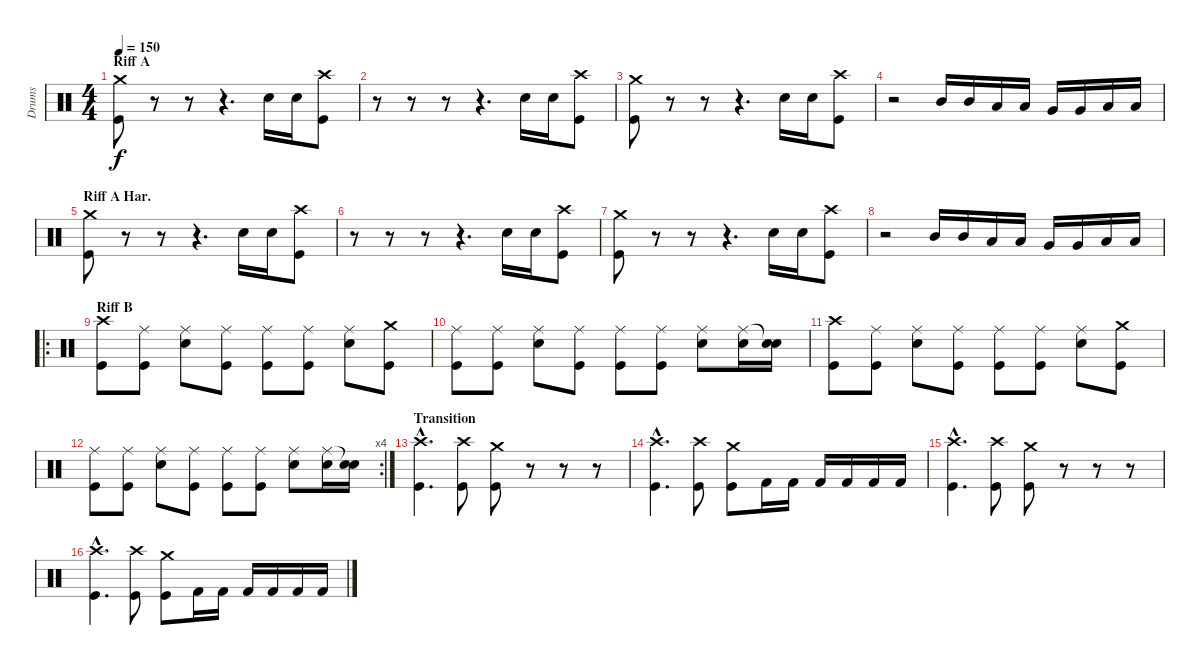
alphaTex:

\track ("Drums" "Drums") {instrument percussion}
\staff {score}
\articulation defaults
\ts (4 4)
\section ("" "Riff A")
\tempo 150
\clef neutral
\ks c
("Crash medium (hit)" "Kick (hit)").8{dy f} r.8 r.8 r.4{d} "Electric Snare (hit)".16 "Electric Snare (hit)".16 ("Crash high (hit)" "Kick (hit)").8 |
r.8 r.8 r.8 r.4{d} "Electric Snare (hit)".16 "Electric Snare (hit)".16 ("Crash high (hit)" "Kick (hit)").8 |
("Crash medium (hit)" "Kick (hit)").8 r.8 r.8 r.4{d} "Electric Snare (hit)".16 "Electric Snare (hit)".16 ("Crash high (hit)" "Kick (hit)").8 |
r.2 "Mid Tom (hit)".16 "Mid Tom (hit)".16 "Low Tom (hit)".16 "Low Tom (hit)".16 "Very Low Tom (hit)".16 "Very Low Tom (hit)".16 "Low Tom (hit)".16 "Low Tom (hit)".16 |
\section ("" "Riff A Har.")
("Crash medium (hit)" "Kick (hit)").8 r.8 r.8 r.4{d} "Electric Snare (hit)".16 "Electric Snare (hit)".16 ("Crash high (hit)" "Kick (hit)").8 |
r.8 r.8 r.8 r.4{d} "Electric Snare (hit)".16 "Electric Snare (hit)".16 ("Crash high (hit)" "Kick (hit)").8 |
("Crash medium (hit)" "Kick (hit)").8 r.8 r.8 r.4{d} "Electric Snare (hit)".16 "Electric Snare (hit)".16 ("Crash high (hit)" "Kick (hit)").8 |
r.2 "Mid Tom (hit)".16 "Mid Tom (hit)".16 "Low Tom (hit)".16 "Low Tom (hit)".16 "Very Low Tom (hit)".16 "Very Low Tom (hit)".16 "Low Tom (hit)".16 "Low Tom (hit)".16 |
\ro
\section ("" "Riff B")
("Crash high (hit)" "Kick (hit)").8 ("Ride (middle)" "Kick (hit)").8 ("Ride (middle)" "Snare (hit) 2").8 ("Ride (middle)" "Kick (hit)").8 ("Ride (middle)" "Kick (hit)").8 ("Ride (middle)" "Kick (hit)").8 ("Ride (middle)" "Snare (hit) 2").8 ("Crash medium (hit)" "Kick (hit)").8 |
("Ride (middle)" "Kick (hit)").8 ("Ride (middle)" "Kick (hit)").8 ("Ride (middle)" "Snare (hit) 2").8 ("Ride (middle)" "Kick (hit)").8 ("Ride (middle)" "Kick (hit)").8 ("Ride (middle)" "Kick (hit)").8 ("Ride (middle)" "Snare (hit) 2").8 ("Ride (middle)" "Electric Snare (hit)").16 ("Snare (hit)"{t} "Electric Snare (hit)").16 |
("Crash high (hit)" "Kick (hit)").8 ("Ride (middle)" "Kick (hit)").8 ("Ride (middle)" "Snare (hit) 2").8 ("Ride (middle)" "Kick (hit)").8 ("Ride (middle)" "Kick (hit)").8 ("Ride (middle)" "Kick (hit)").8 ("Ride (middle)" "Snare (hit) 2").8 ("Crash medium (hit)" "Kick (hit)").8 |
\rc 4
("Ride (middle)" "Kick (hit)").8 ("Ride (middle)" "Kick (hit)").8 ("Ride (middle)" "Snare (hit) 2").8 ("Ride (middle)" "Kick (hit)").8 ("Ride (middle)" "Kick (hit)").8 ("Ride (middle)" "Kick (hit)").8 ("Ride (middle)" "Snare (hit) 2").8 ("Ride (middle)" "Electric Snare (hit)").16 ("Snare (hit)"{t} "Electric Snare (hit)").16 |
\section ("" "Transition")
("Crash high (hit)"{hac} "Kick (hit)"{hac}).4{d} ("Crash high (hit)" "Kick (hit)").8 ("Crash medium (hit)" "Kick (hit)").8 r.8 r.8 r.8 |
("Crash high (hit)"{hac} "Kick (hit)"{hac}).4{d} ("Crash high (hit)" "Kick (hit)").8 ("Crash medium (hit)" "Kick (hit)").8 "Kick (hit) 2".16 "Kick (hit) 2".16 "Kick (hit) 2".16 "Kick (hit) 2".16 "Kick (hit) 2".16 "Kick (hit) 2".16 |
("Crash high (hit)"{hac} "Kick (hit)"{hac}).4{d} ("Crash high (hit)" "Kick (hit)").8 ("Crash medium (hit)" "Kick (hit)").8 r.8 r.8 r.8 |
("Crash high (hit)"{hac} "Kick (hit)"{hac}).4{d} ("Crash high (hit)" "Kick (hit)").8 ("Crash medium (hit)" "Kick (hit)").8 "Kick (hit) 2".16 "Kick (hit) 2".16 "Kick (hit) 2".16 "Kick (hit) 2".16 "Kick (hit) 2".16 "Kick (hit) 2".16
